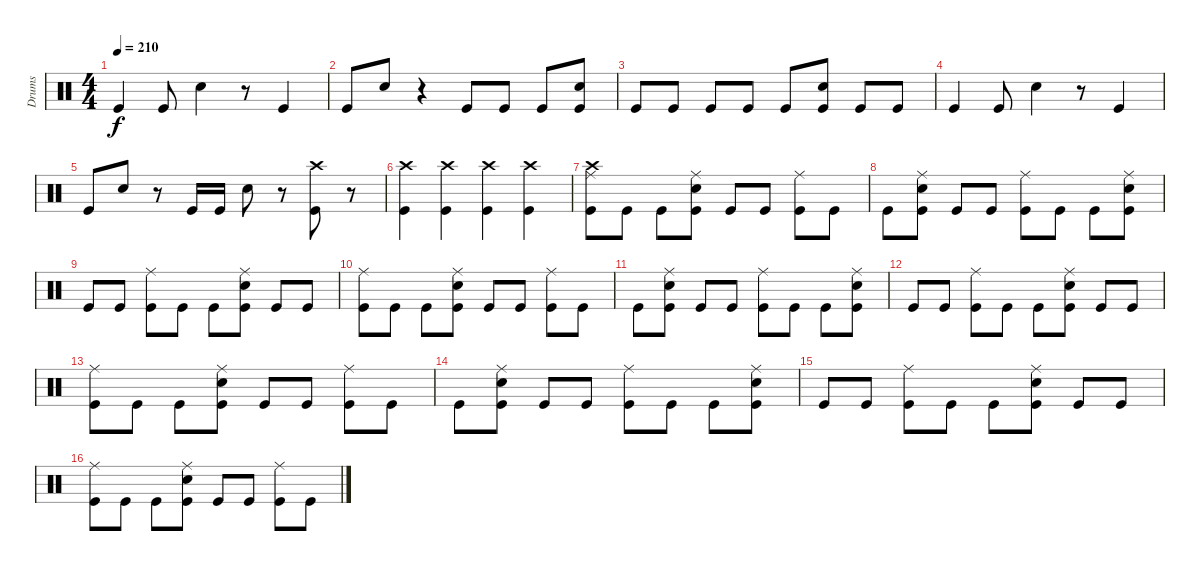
\track ("Drums" "Drums") {instrument percussion}
\staff {score}
\articulation defaults
\ts (4 4)
\tempo 210
\clef neutral
\ks c "Kick (hit)".4{dy f} "Kick (hit)".8 "Electric Snare (hit)".4
r.8 "Kick (hit)".4 |
"Kick (hit)".8 "Electric Snare (hit)".8 r.4 "Kick (hit)".8 "Kick (hit)".8 "Kick (hit)".8 ("Electric Snare (hit)" "Kick (hit)").8 |
"Kick (hit)".8 "Kick (hit)".8 "Kick (hit)".8 "Kick (hit)".8 "Kick (hit)".8 ("Electric Snare (hit)" "Kick (hit)").8 "Kick (hit)".8 "Kick (hit)".8 |
"Kick (hit)".4 "Kick (hit)".8 "Electric Snare (hit)".4 r.8 "Kick (hit)".4 |
"Kick (hit)".8 "Electric Snare (hit)".8 r.8 "Kick (hit)".16 "Kick (hit)".16 "Electric Snare (hit)".8 r.8 ("Crash high (hit)" "Kick (hit)").8 r.8 |
("Crash high (hit)" "Kick (hit)").4 ("Crash high (hit)" "Kick (hit)").4 ("Crash high (hit)" "Kick (hit)").4 ("Crash high (hit)" "Kick (hit)").4 |
("Ride (middle)" "Crash high (hit)" "Kick (hit)").8 "Kick (hit)".8 "Kick (hit)".8 ("Electric Snare (hit)" "Ride (middle)" "Kick (hit)").8 "Kick (hit)".8 "Kick (hit)".8 ("Ride (middle)" "Kick (hit)").8 "Kick (hit)".8 |
"Kick (hit)".8 ("Electric Snare (hit)" "Ride (middle)" "Kick (hit)").8 "Kick (hit)".8 "Kick (hit)".8 ("Ride (middle)" "Kick (hit)").8 "Kick (hit)".8 "Kick (hit)".8 ("Electric Snare (hit)" "Ride (middle)" "Kick (hit)").8 |
"Kick (hit)".8 "Kick (hit)".8 ("Ride (middle)" "Kick (hit)").8 "Kick (hit)".8 "Kick (hit)".8 ("Electric Snare (hit)" "Ride (middle)" "Kick (hit)").8 "Kick (hit)".8 "Kick (hit)".8 |
("Ride (middle)" "Kick (hit)").8 "Kick (hit)".8 "Kick (hit)".8 ("Electric Snare (hit)" "Ride (middle)" "Kick (hit)").8 "Kick (hit)".8 "Kick (hit)".8 ("Ride (middle)" "Kick (hit)").8 "Kick (hit)".8 |
"Kick (hit)".8 ("Electric Snare (hit)" "Ride (middle)" "Kick (hit)").8 "Kick (hit)".8 "Kick (hit)".8 ("Ride (middle)" "Kick (hit)").8 "Kick (hit)".8 "Kick (hit)".8 ("Electric Snare (hit)" "Ride (middle)" "Kick (hit)").8 |
"Kick (hit)".8 "Kick (hit)".8 ("Ride (middle)" "Kick (hit)").8 "Kick (hit)".8 "Kick (hit)".8 ("Electric Snare (hit)" "Ride (middle)" "Kick (hit)").8 "Kick (hit)".8 "Kick (hit)".8 |
("Ride (middle)" "Kick (hit)").8 "Kick (hit)".8 "Kick (hit)".8 ("Electric Snare (hit)" "Ride (middle)" "Kick (hit)").8 "Kick (hit)".8 "Kick (hit)".8 ("Ride (middle)" "Kick (hit)").8 "Kick (hit)".8 |
"Kick (hit)".8 ("Electric Snare (hit)" "Ride (middle)" "Kick (hit)").8 "Kick (hit)".8 "Kick (hit)".8 ("Ride (middle)" "Kick (hit)").8 "Kick (hit)".8 "Kick (hit)".8 ("Electric Snare (hit)" "Ride (middle)" "Kick (hit)").8 |
"Kick (hit)".8 "Kick (hit)".8 ("Ride (middle)" "Kick (hit)").8 "Kick (hit)".8 "Kick (hit)".8 ("Electric Snare (hit)" "Ride (middle)" "Kick (hit)").8 "Kick (hit)".8 "Kick (hit)".8 |
("Ride (middle)" "Kick (hit)").8 "Kick (hit)".8 "Kick (hit)".8 ("Electric Snare (hit)" "Ride (middle)" "Kick (hit)").8 "Kick (hit)".8 "Kick (hit)".8 ("Ride (middle)" "Kick (hit)").8 "Kick (hit)".8
